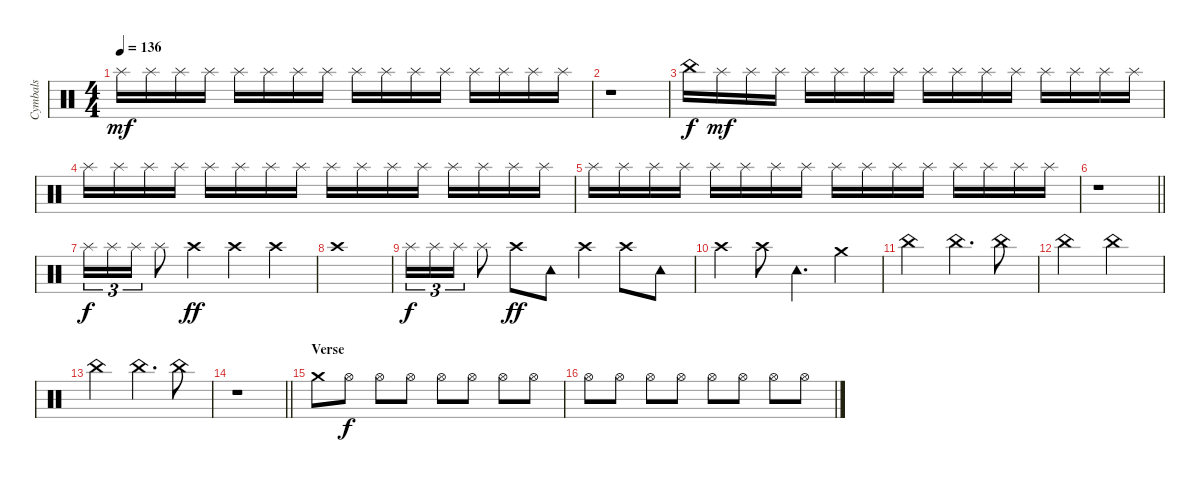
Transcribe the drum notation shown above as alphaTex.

\track ("Cymbals" "Cymbals") {instrument percussion}
\staff {score}
\articulation defaults
\ts (4 4)
\tempo 136
\clef neutral
\ks c "Splash (hit)".16{dy mf} "Splash (hit)".16 "Splash (hit)".16 "Splash (hit)".16 "Splash (hit)".16 "Splash (hit)".16 "Splash (hit)".16 "Splash (hit)".16 "Splash (hit)".16 "Splash (hit)".16 "Splash (hit)".16 "Splash (hit)".16 "Splash (hit)".16 "Splash (hit)".16 "Splash (hit)".16 "Splash (hit)".16
|
r.1 |
"China (hit)".16{dy f} "Splash (hit)".16{dy mf} "Splash (hit)".16 "Splash (hit)".16 "Splash (hit)".16 "Splash (hit)".16 "Splash (hit)".16 "Splash (hit)".16 "Splash (hit)".16 "Splash (hit)".16 "Splash (hit)".16 "Splash (hit)".16 "Splash (hit)".16 "Splash (hit)".16 "Splash (hit)".16 "Splash (hit)".16 |
"Splash (hit)".16 "Splash (hit)".16 "Splash (hit)".16 "Splash (hit)".16 "Splash (hit)".16 "Splash (hit)".16 "Splash (hit)".16 "Splash (hit)".16 "Splash (hit)".16 "Splash (hit)".16 "Splash (hit)".16 "Splash (hit)".16 "Splash (hit)".16 "Splash (hit)".16 "Splash (hit)".16 "Splash (hit)".16 |
"Splash (hit)".16 "Splash (hit)".16 "Splash (hit)".16 "Splash (hit)".16 "Splash (hit)".16 "Splash (hit)".16 "Splash (hit)".16 "Splash (hit)".16 "Splash (hit)".16 "Splash (hit)".16 "Splash (hit)".16 "Splash (hit)".16 "Splash (hit)".16 "Splash (hit)".16 "Splash (hit)".16 "Splash (hit)".16 |
\barLineRight lightlight
r.1 |
"Splash (hit)".16{tu (3 2) dy f} "Splash (hit)".16{tu (3 2)} "Splash (hit)".16{tu (3 2)} "Splash (hit)".8 "Crash high (hit)".4{dy ff} "Crash high (hit)".4 "Crash high (hit)".4 |
"Crash high (hit)".1 |
"Splash (hit)".16{tu (3 2) dy f} "Splash (hit)".16{tu (3 2)} "Splash (hit)".16{tu (3 2)} "Splash (hit)".8 "Crash high (hit)".8{dy ff} "Tambourine (hit)".8 "Crash high (hit)".4 "Crash high (hit)".8 "Tambourine (hit)".8 |
"Crash high (hit)".4 "Crash high (hit)".8 "Tambourine (hit)".4{d} "Crash medium (hit)".4 |
"China (hit)".2 "China (hit)".4{d} "China (hit)".8 |
"China (hit)".2 "China (hit)".2 |
"China (hit)".2 "China (hit)".4{d} "China (hit)".8 |
\barLineRight lightlight
r.1 |
\section ("" "Verse")
"Crash medium (hit)".8 "Hi-Hat (open)".8{dy f} "Hi-Hat (open)".8 "Hi-Hat (open)".8 "Hi-Hat (open)".8 "Hi-Hat (open)".8 "Hi-Hat (open)".8 "Hi-Hat (open)".8 |
"Hi-Hat (open)".8 "Hi-Hat (open)".8 "Hi-Hat (open)".8 "Hi-Hat (open)".8 "Hi-Hat (open)".8 "Hi-Hat (open)".8 "Hi-Hat (open)".8 "Hi-Hat (open)".8
